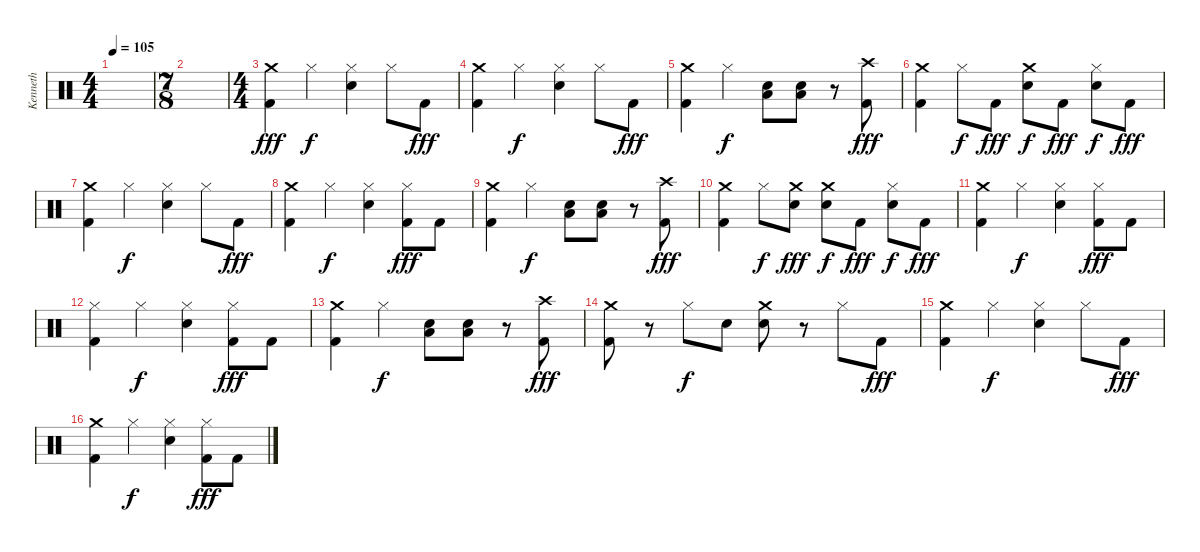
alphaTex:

\track ("Kenneth" "Kenneth") {instrument percussion}
\staff {score}
\articulation defaults
\ts (4 4)
\tempo 105
\clef neutral
\ks c
|
\ts (7 8)
|
\ts (4 4)
("Crash medium (hit)" "Kick (hit) 2").4{dy fff} "Hi-Hat (closed)".4{dy f} ("Hi-Hat (closed)" "Electric Snare (hit)").4 "Hi-Hat (closed)".8 "Kick (hit) 2".8{dy fff} |
("Crash medium (hit)" "Kick (hit) 2").4 "Hi-Hat (closed)".4{dy f} ("Hi-Hat (closed)" "Electric Snare (hit)").4 "Hi-Hat (closed)".8 "Kick (hit) 2".8{dy fff} |
("Crash medium (hit)" "Kick (hit) 2").4 "Hi-Hat (closed)".4{dy f} ("Low Tom (hit)" "Electric Snare (hit)").8 ("Low Tom (hit)" "Electric Snare (hit)").8 r.8 ("Crash high (hit)" "Kick (hit) 2").8{dy fff} |
("Crash medium (hit)" "Kick (hit) 2").4 "Hi-Hat (closed)".8{dy f} "Kick (hit) 2".8{dy fff} ("Crash medium (hit)" "Electric Snare (hit)").8{dy f} "Kick (hit) 2".8{dy fff} ("Hi-Hat (closed)" "Electric Snare (hit)").8{dy f} "Kick (hit) 2".8{dy fff} |
("Crash medium (hit)" "Kick (hit) 2").4 "Hi-Hat (closed)".4{dy f} ("Hi-Hat (closed)" "Electric Snare (hit)").4 "Hi-Hat (closed)".8 "Kick (hit) 2".8{dy fff} |
("Crash medium (hit)" "Kick (hit) 2").4 "Hi-Hat (closed)".4{dy f} ("Hi-Hat (closed)" "Electric Snare (hit)").4 ("Hi-Hat (closed)" "Kick (hit) 2").8{dy fff} "Kick (hit) 2".8 |
("Crash medium (hit)" "Kick (hit) 2").4 "Hi-Hat (closed)".4{dy f} ("Low Tom (hit)" "Electric Snare (hit)").8 ("Low Tom (hit)" "Electric Snare (hit)").8 r.8 ("Crash high (hit)" "Kick (hit) 2").8{dy fff} |
("Crash medium (hit)" "Kick (hit) 2").4 "Hi-Hat (closed)".8{dy f} ("Crash medium (hit)" "Electric Snare (hit)").8{dy fff} ("Crash medium (hit)" "Electric Snare (hit)").8{dy f} "Kick (hit) 2".8{dy fff} ("Hi-Hat (closed)" "Electric Snare (hit)").8{dy f} "Kick (hit) 2".8{dy fff} |
("Crash medium (hit)" "Kick (hit) 2").4 "Hi-Hat (closed)".4{dy f} ("Hi-Hat (closed)" "Electric Snare (hit)").4 ("Hi-Hat (closed)" "Kick (hit) 2").8{dy fff} "Kick (hit) 2".8 |
("Hi-Hat (closed)" "Kick (hit) 2").4 "Hi-Hat (closed)".4{dy f} ("Hi-Hat (closed)" "Electric Snare (hit)").4 ("Hi-Hat (closed)" "Kick (hit) 2").8{dy fff} "Kick (hit) 2".8 |
("Crash medium (hit)" "Kick (hit) 2").4 "Hi-Hat (closed)".4{dy f} ("Low Tom (hit)" "Electric Snare (hit)").8 ("Low Tom (hit)" "Electric Snare (hit)").8 r.8 ("Crash high (hit)" "Kick (hit) 2").8{dy fff} |
("Crash medium (hit)" "Kick (hit) 2").8 r.8 "Hi-Hat (closed)".8{dy f} "Electric Snare (hit)".8 ("Crash medium (hit)" "Electric Snare (hit)").8 r.8 "Hi-Hat (closed)".8 "Kick (hit) 2".8{dy fff} |
("Crash medium (hit)" "Kick (hit) 2").4 "Hi-Hat (closed)".4{dy f} ("Hi-Hat (closed)" "Electric Snare (hit)").4 "Hi-Hat (closed)".8 "Kick (hit) 2".8{dy fff} |
("Crash medium (hit)" "Kick (hit) 2").4 "Hi-Hat (closed)".4{dy f} ("Hi-Hat (closed)" "Electric Snare (hit)").4 ("Hi-Hat (closed)" "Kick (hit) 2").8{dy fff} "Kick (hit) 2".8
